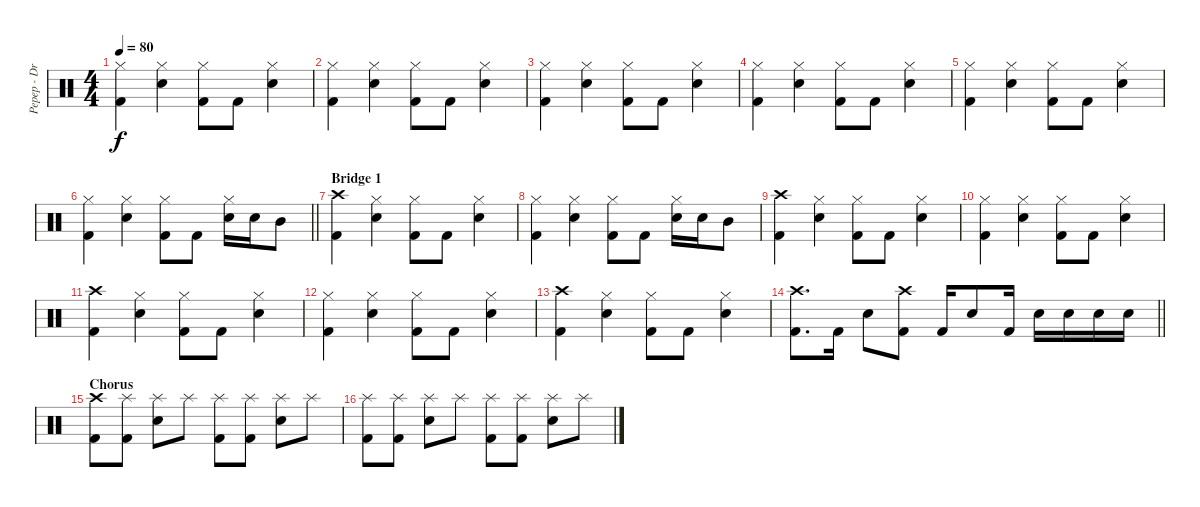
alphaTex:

\track ("Pepep - Drum" "Pepep - Dr") {instrument percussion}
\staff {score}
\articulation defaults
\ts (4 4)
\tempo 80
\clef neutral
\ks c
("Hi-Hat (closed)" "Kick (hit) 2").4{dy f} ("Hi-Hat (closed)" "Electric Snare (hit)").4 ("Hi-Hat (closed)" "Kick (hit) 2").8 "Kick (hit) 2".8 ("Hi-Hat (closed)" "Electric Snare (hit)").4 |
("Hi-Hat (closed)" "Kick (hit) 2").4 ("Hi-Hat (closed)" "Electric Snare (hit)").4 ("Hi-Hat (closed)" "Kick (hit) 2").8 "Kick (hit) 2".8 ("Hi-Hat (closed)" "Electric Snare (hit)").4 |
("Hi-Hat (closed)" "Kick (hit) 2").4 ("Hi-Hat (closed)" "Electric Snare (hit)").4 ("Hi-Hat (closed)" "Kick (hit) 2").8 "Kick (hit) 2".8 ("Hi-Hat (closed)" "Electric Snare (hit)").4 |
("Hi-Hat (closed)" "Kick (hit) 2").4 ("Hi-Hat (closed)" "Electric Snare (hit)").4 ("Hi-Hat (closed)" "Kick (hit) 2").8 "Kick (hit) 2".8 ("Hi-Hat (closed)" "Electric Snare (hit)").4 |
("Hi-Hat (closed)" "Kick (hit) 2").4 ("Hi-Hat (closed)" "Electric Snare (hit)").4 ("Hi-Hat (closed)" "Kick (hit) 2").8 "Kick (hit) 2".8 ("Hi-Hat (closed)" "Electric Snare (hit)").4 |
\barLineRight lightlight
("Hi-Hat (closed)" "Kick (hit) 2").4 ("Hi-Hat (closed)" "Electric Snare (hit)").4 ("Hi-Hat (closed)" "Kick (hit) 2").8 "Kick (hit) 2".8 ("Hi-Hat (closed)" "Electric Snare (hit)").16 "Electric Snare (hit)".16 "Mid Tom (hit)".8 |
\section ("" "Bridge 1")
("Crash high (hit)" "Kick (hit) 2").4 ("Hi-Hat (closed)" "Electric Snare (hit)").4 ("Hi-Hat (closed)" "Kick (hit) 2").8 "Kick (hit) 2".8 ("Hi-Hat (closed)" "Electric Snare (hit)").4 |
("Hi-Hat (closed)" "Kick (hit) 2").4 ("Hi-Hat (closed)" "Electric Snare (hit)").4 ("Hi-Hat (closed)" "Kick (hit) 2").8 "Kick (hit) 2".8 ("Hi-Hat (closed)" "Electric Snare (hit)").16 "Electric Snare (hit)".16 "Mid Tom (hit)".8 |
("Crash high (hit)" "Kick (hit) 2").4 ("Hi-Hat (closed)" "Electric Snare (hit)").4 ("Hi-Hat (closed)" "Kick (hit) 2").8 "Kick (hit) 2".8 ("Hi-Hat (closed)" "Electric Snare (hit)").4 |
("Hi-Hat (closed)" "Kick (hit) 2").4 ("Hi-Hat (closed)" "Electric Snare (hit)").4 ("Hi-Hat (closed)" "Kick (hit) 2").8 "Kick (hit) 2".8 ("Hi-Hat (closed)" "Electric Snare (hit)").4 |
("Crash high (hit)" "Kick (hit) 2").4 ("Hi-Hat (closed)" "Electric Snare (hit)").4 ("Hi-Hat (closed)" "Kick (hit) 2").8 "Kick (hit) 2".8 ("Hi-Hat (closed)" "Electric Snare (hit)").4 |
("Hi-Hat (closed)" "Kick (hit) 2").4 ("Hi-Hat (closed)" "Electric Snare (hit)").4 ("Hi-Hat (closed)" "Kick (hit) 2").8 "Kick (hit) 2".8 ("Hi-Hat (closed)" "Electric Snare (hit)").4 |
("Crash high (hit)" "Kick (hit) 2").4 ("Hi-Hat (closed)" "Electric Snare (hit)").4 ("Hi-Hat (closed)" "Kick (hit) 2").8 "Kick (hit) 2".8 ("Hi-Hat (closed)" "Electric Snare (hit)").4 |
\barLineRight lightlight
("Crash high (hit)" "Kick (hit) 2").8{d} "Kick (hit) 2".16 "Electric Snare (hit)".8 ("Crash high (hit)" "Kick (hit) 2").8 "Kick (hit) 2".16 "Electric Snare (hit)".8 "Kick (hit) 2".16 "Electric Snare (hit)".16 "Electric Snare (hit)".16 "Electric Snare (hit)".16 "Electric Snare (hit)".16 |
\section ("" "Chorus")
("Crash high (hit)" "Kick (hit) 2").8 ("Splash (hit)" "Kick (hit) 2").8 ("Splash (hit)" "Electric Snare (hit)").8 "Splash (hit)".8 ("Splash (hit)" "Kick (hit) 2").8 ("Splash (hit)" "Kick (hit) 2").8 ("Splash (hit)" "Electric Snare (hit)").8 "Splash (hit)".8 |
("Splash (hit)" "Kick (hit) 2").8 ("Splash (hit)" "Kick (hit) 2").8 ("Splash (hit)" "Electric Snare (hit)").8 "Splash (hit)".8 ("Splash (hit)" "Kick (hit) 2").8 ("Splash (hit)" "Kick (hit) 2").8 ("Splash (hit)" "Electric Snare (hit)").8 "Splash (hit)".8
